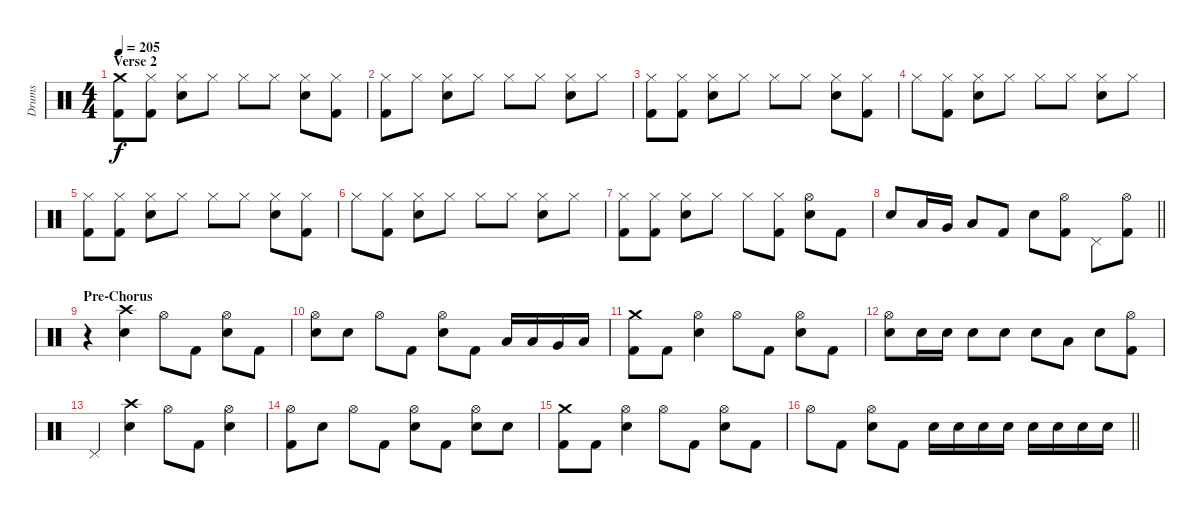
\track ("Drums" "Drums") {instrument percussion}
\staff {score}
\articulation defaults
\ts (4 4)
\section ("" "Verse 2")
\tempo 205
\clef neutral
\ks c
("Crash medium (hit)" "Kick (hit) 2").8{dy f} ("Hi-Hat (closed)" "Kick (hit) 2").8 ("Hi-Hat (closed)" "Electric Snare (hit)").8 "Hi-Hat (closed)".8 "Hi-Hat (closed)".8 "Hi-Hat (closed)".8 ("Hi-Hat (closed)" "Electric Snare (hit)").8 ("Hi-Hat (closed)" "Kick (hit) 2").8 |
("Hi-Hat (closed)" "Kick (hit) 2").8 "Hi-Hat (closed)".8 ("Hi-Hat (closed)" "Electric Snare (hit)").8 "Hi-Hat (closed)".8 "Hi-Hat (closed)".8 "Hi-Hat (closed)".8 ("Hi-Hat (closed)" "Electric Snare (hit)").8 "Hi-Hat (closed)".8 |
("Hi-Hat (closed)" "Kick (hit) 2").8 ("Hi-Hat (closed)" "Kick (hit) 2").8 ("Hi-Hat (closed)" "Electric Snare (hit)").8 "Hi-Hat (closed)".8 "Hi-Hat (closed)".8 "Hi-Hat (closed)".8 ("Hi-Hat (closed)" "Electric Snare (hit)").8 ("Hi-Hat (closed)" "Kick (hit) 2").8 |
"Hi-Hat (closed)".8 ("Hi-Hat (closed)" "Kick (hit) 2").8 ("Hi-Hat (closed)" "Electric Snare (hit)").8 "Hi-Hat (closed)".8 "Hi-Hat (closed)".8 "Hi-Hat (closed)".8 ("Hi-Hat (closed)" "Electric Snare (hit)").8 "Hi-Hat (closed)".8 |
("Hi-Hat (closed)" "Kick (hit) 2").8 ("Hi-Hat (closed)" "Kick (hit) 2").8 ("Hi-Hat (closed)" "Electric Snare (hit)").8 "Hi-Hat (closed)".8 "Hi-Hat (closed)".8 "Hi-Hat (closed)".8 ("Hi-Hat (closed)" "Electric Snare (hit)").8 ("Hi-Hat (closed)" "Kick (hit) 2").8 |
"Hi-Hat (closed)".8 ("Hi-Hat (closed)" "Kick (hit) 2").8 ("Hi-Hat (closed)" "Electric Snare (hit)").8 "Hi-Hat (closed)".8 "Hi-Hat (closed)".8 "Hi-Hat (closed)".8 ("Hi-Hat (closed)" "Electric Snare (hit)").8 "Hi-Hat (closed)".8 |
("Hi-Hat (closed)" "Kick (hit) 2").8 ("Hi-Hat (closed)" "Kick (hit) 2").8 ("Hi-Hat (closed)" "Electric Snare (hit)").8 "Hi-Hat (closed)".8 "Hi-Hat (closed)".8 ("Hi-Hat (closed)" "Kick (hit) 2").8 ("Hi-Hat (open)" "Electric Snare (hit)").8 "Kick (hit) 2".8 |
\barLineRight lightlight "Electric Snare (hit)".8 "Low Tom (hit)".16 "Very Low Tom (hit)".16 "Low Floor Tom (hit)".8 "Kick (hit) 2".8 "Electric Snare (hit)".8
("Hi-Hat (open)" "Kick (hit) 2").8 "Pedal Hi-Hat (hit)".8 ("Hi-Hat (open)" "Kick (hit) 2").8 |
\section ("" "Pre-Chorus")
r.4 ("Crash high (hit)" "Electric Snare (hit)").4 "Hi-Hat (open)".8 "Kick (hit) 2".8 ("Hi-Hat (open)" "Electric Snare (hit)").8 "Kick (hit) 2".8 |
("Hi-Hat (open)" "Electric Snare (hit)").8 "Electric Snare (hit)".8 "Hi-Hat (open)".8 "Kick (hit) 2".8 ("Hi-Hat (open)" "Electric Snare (hit)").8 "Kick (hit) 2".8 "Low Tom (hit)".16 "Low Tom (hit)".16 "Very Low Tom (hit)".16 "Low Floor Tom (hit)".16 |
("Crash medium (hit)" "Kick (hit) 2").8 "Kick (hit) 2".8 ("Hi-Hat (open)" "Electric Snare (hit)").4 "Hi-Hat (open)".8 "Kick (hit) 2".8 ("Hi-Hat (open)" "Electric Snare (hit)").8 "Kick (hit) 2".8 |
("Hi-Hat (open)" "Electric Snare (hit)").8 "Electric Snare (hit)".16 "Electric Snare (hit)".16 "Electric Snare (hit)".8 "Electric Snare (hit)".8 "Electric Snare (hit)".8 "Low Tom (hit)".8 "Electric Snare (hit)".8 ("Hi-Hat (open)" "Kick (hit) 2").8 |
"Pedal Hi-Hat (hit)".4 ("Crash high (hit)" "Electric Snare (hit)").4 "Hi-Hat (open)".8 "Kick (hit) 2".8 ("Hi-Hat (open)" "Electric Snare (hit)").4 |
("Hi-Hat (open)" "Kick (hit) 2").8 "Electric Snare (hit)".8 "Hi-Hat (open)".8 "Kick (hit) 2".8 ("Hi-Hat (open)" "Electric Snare (hit)").8 "Kick (hit) 2".8 ("Hi-Hat (open)" "Electric Snare (hit)").8 "Electric Snare (hit)".8 |
("Crash medium (hit)" "Kick (hit) 2").8 "Kick (hit) 2".8 ("Hi-Hat (open)" "Electric Snare (hit)").4 "Hi-Hat (open)".8 "Kick (hit) 2".8 ("Hi-Hat (open)" "Electric Snare (hit)").8 "Kick (hit) 2".8 |
\barLineRight lightlight "Hi-Hat (open)".8 "Kick (hit) 2".8
("Hi-Hat (open)" "Electric Snare (hit)").8 "Kick (hit) 2".8 "Electric Snare (hit)".16 "Electric Snare (hit)".16 "Electric Snare (hit)".16 "Electric Snare (hit)".16 "Electric Snare (hit)".16 "Electric Snare (hit)".16 "Electric Snare (hit)".16 "Electric Snare (hit)".16
